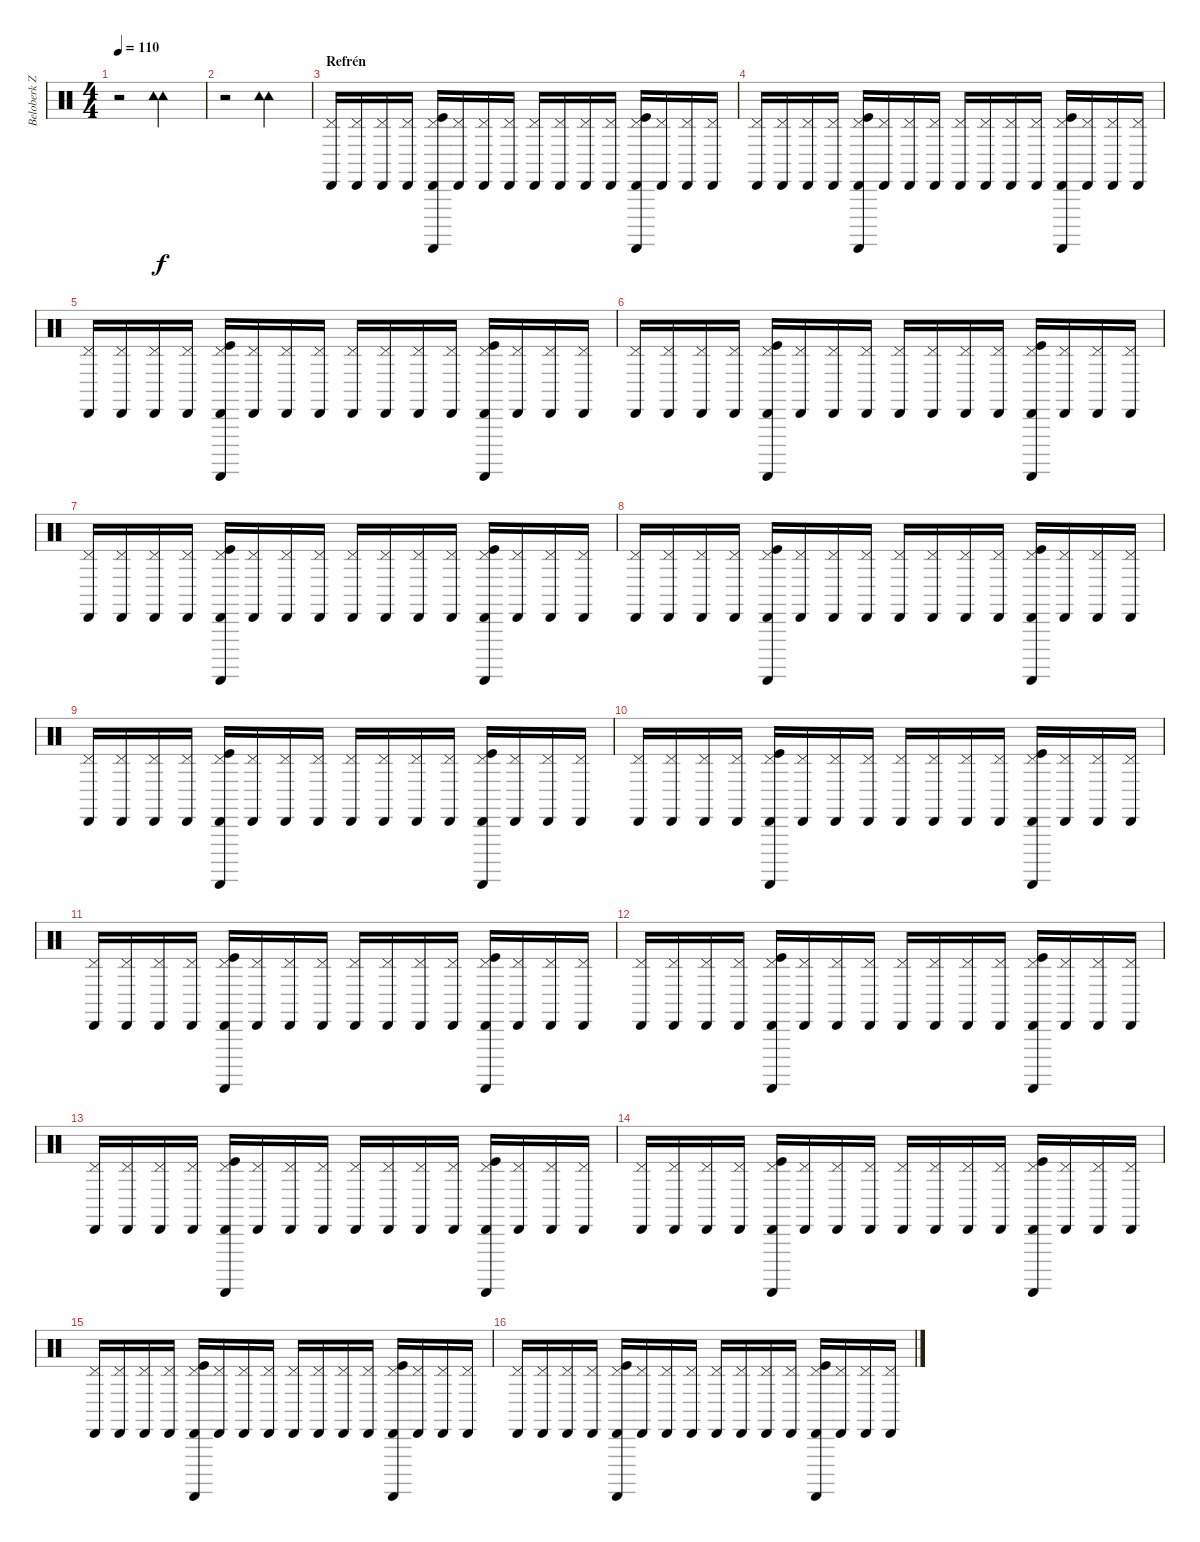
\track ("Beloberk Zsolt" "Beloberk Z") {instrument percussion}
\staff {score}
\articulation defaults
\ts (4 4)
\tempo 110
\clef neutral
\ks c
r.2{dy f} ("Tambourine (hit)" "Tambourine (hit)").2 |
r.2 ("Tambourine (hit)" "Tambourine (hit)").2 |
\section ("" "Refrén")
("Cabasa (hit)" "Pedal Hi-Hat (hit)").16 ("Cabasa (hit)" "Pedal Hi-Hat (hit)").16 ("Cabasa (hit)" "Pedal Hi-Hat (hit)").16 ("Cabasa (hit)" "Pedal Hi-Hat (hit)").16 ("Cabasa (hit)" "Guiro (scrap-return)" "Pedal Hi-Hat (hit)" "Kick (hit)").16 ("Cabasa (hit)" "Pedal Hi-Hat (hit)").16 ("Cabasa (hit)" "Pedal Hi-Hat (hit)").16 ("Cabasa (hit)" "Pedal Hi-Hat (hit)").16 ("Cabasa (hit)" "Pedal Hi-Hat (hit)").16 ("Cabasa (hit)" "Pedal Hi-Hat (hit)").16 ("Cabasa (hit)" "Pedal Hi-Hat (hit)").16 ("Cabasa (hit)" "Pedal Hi-Hat (hit)").16 ("Cabasa (hit)" "Guiro (scrap-return)" "Pedal Hi-Hat (hit)" "Kick (hit)").16 ("Cabasa (hit)" "Pedal Hi-Hat (hit)").16 ("Cabasa (hit)" "Pedal Hi-Hat (hit)").16 ("Cabasa (hit)" "Pedal Hi-Hat (hit)").16 |
("Cabasa (hit)" "Pedal Hi-Hat (hit)").16 ("Cabasa (hit)" "Pedal Hi-Hat (hit)").16 ("Cabasa (hit)" "Pedal Hi-Hat (hit)").16 ("Cabasa (hit)" "Pedal Hi-Hat (hit)").16 ("Cabasa (hit)" "Guiro (scrap-return)" "Pedal Hi-Hat (hit)" "Kick (hit)").16 ("Cabasa (hit)" "Pedal Hi-Hat (hit)").16 ("Cabasa (hit)" "Pedal Hi-Hat (hit)").16 ("Cabasa (hit)" "Pedal Hi-Hat (hit)").16 ("Cabasa (hit)" "Pedal Hi-Hat (hit)").16 ("Cabasa (hit)" "Pedal Hi-Hat (hit)").16 ("Cabasa (hit)" "Pedal Hi-Hat (hit)").16 ("Cabasa (hit)" "Pedal Hi-Hat (hit)").16 ("Cabasa (hit)" "Guiro (scrap-return)" "Pedal Hi-Hat (hit)" "Kick (hit)").16 ("Cabasa (hit)" "Pedal Hi-Hat (hit)").16 ("Cabasa (hit)" "Pedal Hi-Hat (hit)").16 ("Cabasa (hit)" "Pedal Hi-Hat (hit)").16 |
("Cabasa (hit)" "Pedal Hi-Hat (hit)").16 ("Cabasa (hit)" "Pedal Hi-Hat (hit)").16 ("Cabasa (hit)" "Pedal Hi-Hat (hit)").16 ("Cabasa (hit)" "Pedal Hi-Hat (hit)").16 ("Cabasa (hit)" "Guiro (scrap-return)" "Pedal Hi-Hat (hit)" "Kick (hit)").16 ("Cabasa (hit)" "Pedal Hi-Hat (hit)").16 ("Cabasa (hit)" "Pedal Hi-Hat (hit)").16 ("Cabasa (hit)" "Pedal Hi-Hat (hit)").16 ("Cabasa (hit)" "Pedal Hi-Hat (hit)").16 ("Cabasa (hit)" "Pedal Hi-Hat (hit)").16 ("Cabasa (hit)" "Pedal Hi-Hat (hit)").16 ("Cabasa (hit)" "Pedal Hi-Hat (hit)").16 ("Cabasa (hit)" "Guiro (scrap-return)" "Pedal Hi-Hat (hit)" "Kick (hit)").16 ("Cabasa (hit)" "Pedal Hi-Hat (hit)").16 ("Cabasa (hit)" "Pedal Hi-Hat (hit)").16 ("Cabasa (hit)" "Pedal Hi-Hat (hit)").16 |
("Cabasa (hit)" "Pedal Hi-Hat (hit)").16 ("Cabasa (hit)" "Pedal Hi-Hat (hit)").16 ("Cabasa (hit)" "Pedal Hi-Hat (hit)").16 ("Cabasa (hit)" "Pedal Hi-Hat (hit)").16 ("Cabasa (hit)" "Guiro (scrap-return)" "Pedal Hi-Hat (hit)" "Kick (hit)").16 ("Cabasa (hit)" "Pedal Hi-Hat (hit)").16 ("Cabasa (hit)" "Pedal Hi-Hat (hit)").16 ("Cabasa (hit)" "Pedal Hi-Hat (hit)").16 ("Cabasa (hit)" "Pedal Hi-Hat (hit)").16 ("Cabasa (hit)" "Pedal Hi-Hat (hit)").16 ("Cabasa (hit)" "Pedal Hi-Hat (hit)").16 ("Cabasa (hit)" "Pedal Hi-Hat (hit)").16 ("Cabasa (hit)" "Guiro (scrap-return)" "Pedal Hi-Hat (hit)" "Kick (hit)").16 ("Cabasa (hit)" "Pedal Hi-Hat (hit)").16 ("Cabasa (hit)" "Pedal Hi-Hat (hit)").16 ("Cabasa (hit)" "Pedal Hi-Hat (hit)").16 |
("Cabasa (hit)" "Pedal Hi-Hat (hit)").16 ("Cabasa (hit)" "Pedal Hi-Hat (hit)").16 ("Cabasa (hit)" "Pedal Hi-Hat (hit)").16 ("Cabasa (hit)" "Pedal Hi-Hat (hit)").16 ("Cabasa (hit)" "Guiro (scrap-return)" "Pedal Hi-Hat (hit)" "Kick (hit)").16 ("Cabasa (hit)" "Pedal Hi-Hat (hit)").16 ("Cabasa (hit)" "Pedal Hi-Hat (hit)").16 ("Cabasa (hit)" "Pedal Hi-Hat (hit)").16 ("Cabasa (hit)" "Pedal Hi-Hat (hit)").16 ("Cabasa (hit)" "Pedal Hi-Hat (hit)").16 ("Cabasa (hit)" "Pedal Hi-Hat (hit)").16 ("Cabasa (hit)" "Pedal Hi-Hat (hit)").16 ("Cabasa (hit)" "Guiro (scrap-return)" "Pedal Hi-Hat (hit)" "Kick (hit)").16 ("Cabasa (hit)" "Pedal Hi-Hat (hit)").16 ("Cabasa (hit)" "Pedal Hi-Hat (hit)").16 ("Cabasa (hit)" "Pedal Hi-Hat (hit)").16 |
("Cabasa (hit)" "Pedal Hi-Hat (hit)").16 ("Cabasa (hit)" "Pedal Hi-Hat (hit)").16 ("Cabasa (hit)" "Pedal Hi-Hat (hit)").16 ("Cabasa (hit)" "Pedal Hi-Hat (hit)").16 ("Cabasa (hit)" "Guiro (scrap-return)" "Pedal Hi-Hat (hit)" "Kick (hit)").16 ("Cabasa (hit)" "Pedal Hi-Hat (hit)").16 ("Cabasa (hit)" "Pedal Hi-Hat (hit)").16 ("Cabasa (hit)" "Pedal Hi-Hat (hit)").16 ("Cabasa (hit)" "Pedal Hi-Hat (hit)").16 ("Cabasa (hit)" "Pedal Hi-Hat (hit)").16 ("Cabasa (hit)" "Pedal Hi-Hat (hit)").16 ("Cabasa (hit)" "Pedal Hi-Hat (hit)").16 ("Cabasa (hit)" "Guiro (scrap-return)" "Pedal Hi-Hat (hit)" "Kick (hit)").16 ("Cabasa (hit)" "Pedal Hi-Hat (hit)").16 ("Cabasa (hit)" "Pedal Hi-Hat (hit)").16 ("Cabasa (hit)" "Pedal Hi-Hat (hit)").16 |
("Cabasa (hit)" "Pedal Hi-Hat (hit)").16 ("Cabasa (hit)" "Pedal Hi-Hat (hit)").16 ("Cabasa (hit)" "Pedal Hi-Hat (hit)").16 ("Cabasa (hit)" "Pedal Hi-Hat (hit)").16 ("Cabasa (hit)" "Guiro (scrap-return)" "Pedal Hi-Hat (hit)" "Kick (hit)").16 ("Cabasa (hit)" "Pedal Hi-Hat (hit)").16 ("Cabasa (hit)" "Pedal Hi-Hat (hit)").16 ("Cabasa (hit)" "Pedal Hi-Hat (hit)").16 ("Cabasa (hit)" "Pedal Hi-Hat (hit)").16 ("Cabasa (hit)" "Pedal Hi-Hat (hit)").16 ("Cabasa (hit)" "Pedal Hi-Hat (hit)").16 ("Cabasa (hit)" "Pedal Hi-Hat (hit)").16 ("Cabasa (hit)" "Guiro (scrap-return)" "Pedal Hi-Hat (hit)" "Kick (hit)").16 ("Cabasa (hit)" "Pedal Hi-Hat (hit)").16 ("Cabasa (hit)" "Pedal Hi-Hat (hit)").16 ("Cabasa (hit)" "Pedal Hi-Hat (hit)").16 |
("Cabasa (hit)" "Pedal Hi-Hat (hit)").16 ("Cabasa (hit)" "Pedal Hi-Hat (hit)").16 ("Cabasa (hit)" "Pedal Hi-Hat (hit)").16 ("Cabasa (hit)" "Pedal Hi-Hat (hit)").16 ("Cabasa (hit)" "Guiro (scrap-return)" "Pedal Hi-Hat (hit)" "Kick (hit)").16 ("Cabasa (hit)" "Pedal Hi-Hat (hit)").16 ("Cabasa (hit)" "Pedal Hi-Hat (hit)").16 ("Cabasa (hit)" "Pedal Hi-Hat (hit)").16 ("Cabasa (hit)" "Pedal Hi-Hat (hit)").16 ("Cabasa (hit)" "Pedal Hi-Hat (hit)").16 ("Cabasa (hit)" "Pedal Hi-Hat (hit)").16 ("Cabasa (hit)" "Pedal Hi-Hat (hit)").16 ("Cabasa (hit)" "Guiro (scrap-return)" "Pedal Hi-Hat (hit)" "Kick (hit)").16 ("Cabasa (hit)" "Pedal Hi-Hat (hit)").16 ("Cabasa (hit)" "Pedal Hi-Hat (hit)").16 ("Cabasa (hit)" "Pedal Hi-Hat (hit)").16 |
("Cabasa (hit)" "Pedal Hi-Hat (hit)").16 ("Cabasa (hit)" "Pedal Hi-Hat (hit)").16 ("Cabasa (hit)" "Pedal Hi-Hat (hit)").16 ("Cabasa (hit)" "Pedal Hi-Hat (hit)").16 ("Cabasa (hit)" "Guiro (scrap-return)" "Pedal Hi-Hat (hit)" "Kick (hit)").16 ("Cabasa (hit)" "Pedal Hi-Hat (hit)").16 ("Cabasa (hit)" "Pedal Hi-Hat (hit)").16 ("Cabasa (hit)" "Pedal Hi-Hat (hit)").16 ("Cabasa (hit)" "Pedal Hi-Hat (hit)").16 ("Cabasa (hit)" "Pedal Hi-Hat (hit)").16 ("Cabasa (hit)" "Pedal Hi-Hat (hit)").16 ("Cabasa (hit)" "Pedal Hi-Hat (hit)").16 ("Cabasa (hit)" "Guiro (scrap-return)" "Pedal Hi-Hat (hit)" "Kick (hit)").16 ("Cabasa (hit)" "Pedal Hi-Hat (hit)").16 ("Cabasa (hit)" "Pedal Hi-Hat (hit)").16 ("Cabasa (hit)" "Pedal Hi-Hat (hit)").16 |
("Cabasa (hit)" "Pedal Hi-Hat (hit)").16 ("Cabasa (hit)" "Pedal Hi-Hat (hit)").16 ("Cabasa (hit)" "Pedal Hi-Hat (hit)").16 ("Cabasa (hit)" "Pedal Hi-Hat (hit)").16 ("Cabasa (hit)" "Guiro (scrap-return)" "Pedal Hi-Hat (hit)" "Kick (hit)").16 ("Cabasa (hit)" "Pedal Hi-Hat (hit)").16 ("Cabasa (hit)" "Pedal Hi-Hat (hit)").16 ("Cabasa (hit)" "Pedal Hi-Hat (hit)").16 ("Cabasa (hit)" "Pedal Hi-Hat (hit)").16 ("Cabasa (hit)" "Pedal Hi-Hat (hit)").16 ("Cabasa (hit)" "Pedal Hi-Hat (hit)").16 ("Cabasa (hit)" "Pedal Hi-Hat (hit)").16 ("Cabasa (hit)" "Guiro (scrap-return)" "Pedal Hi-Hat (hit)" "Kick (hit)").16 ("Cabasa (hit)" "Pedal Hi-Hat (hit)").16 ("Cabasa (hit)" "Pedal Hi-Hat (hit)").16 ("Cabasa (hit)" "Pedal Hi-Hat (hit)").16 |
("Cabasa (hit)" "Pedal Hi-Hat (hit)").16 ("Cabasa (hit)" "Pedal Hi-Hat (hit)").16 ("Cabasa (hit)" "Pedal Hi-Hat (hit)").16 ("Cabasa (hit)" "Pedal Hi-Hat (hit)").16 ("Cabasa (hit)" "Guiro (scrap-return)" "Pedal Hi-Hat (hit)" "Kick (hit)").16 ("Cabasa (hit)" "Pedal Hi-Hat (hit)").16 ("Cabasa (hit)" "Pedal Hi-Hat (hit)").16 ("Cabasa (hit)" "Pedal Hi-Hat (hit)").16 ("Cabasa (hit)" "Pedal Hi-Hat (hit)").16 ("Cabasa (hit)" "Pedal Hi-Hat (hit)").16 ("Cabasa (hit)" "Pedal Hi-Hat (hit)").16 ("Cabasa (hit)" "Pedal Hi-Hat (hit)").16 ("Cabasa (hit)" "Guiro (scrap-return)" "Pedal Hi-Hat (hit)" "Kick (hit)").16 ("Cabasa (hit)" "Pedal Hi-Hat (hit)").16 ("Cabasa (hit)" "Pedal Hi-Hat (hit)").16 ("Cabasa (hit)" "Pedal Hi-Hat (hit)").16 |
("Cabasa (hit)" "Pedal Hi-Hat (hit)").16 ("Cabasa (hit)" "Pedal Hi-Hat (hit)").16 ("Cabasa (hit)" "Pedal Hi-Hat (hit)").16 ("Cabasa (hit)" "Pedal Hi-Hat (hit)").16 ("Cabasa (hit)" "Guiro (scrap-return)" "Pedal Hi-Hat (hit)" "Kick (hit)").16 ("Cabasa (hit)" "Pedal Hi-Hat (hit)").16 ("Cabasa (hit)" "Pedal Hi-Hat (hit)").16 ("Cabasa (hit)" "Pedal Hi-Hat (hit)").16 ("Cabasa (hit)" "Pedal Hi-Hat (hit)").16 ("Cabasa (hit)" "Pedal Hi-Hat (hit)").16 ("Cabasa (hit)" "Pedal Hi-Hat (hit)").16 ("Cabasa (hit)" "Pedal Hi-Hat (hit)").16 ("Cabasa (hit)" "Guiro (scrap-return)" "Pedal Hi-Hat (hit)" "Kick (hit)").16 ("Cabasa (hit)" "Pedal Hi-Hat (hit)").16 ("Cabasa (hit)" "Pedal Hi-Hat (hit)").16 ("Cabasa (hit)" "Pedal Hi-Hat (hit)").16 |
("Cabasa (hit)" "Pedal Hi-Hat (hit)").16 ("Cabasa (hit)" "Pedal Hi-Hat (hit)").16 ("Cabasa (hit)" "Pedal Hi-Hat (hit)").16 ("Cabasa (hit)" "Pedal Hi-Hat (hit)").16 ("Cabasa (hit)" "Guiro (scrap-return)" "Pedal Hi-Hat (hit)" "Kick (hit)").16 ("Cabasa (hit)" "Pedal Hi-Hat (hit)").16 ("Cabasa (hit)" "Pedal Hi-Hat (hit)").16 ("Cabasa (hit)" "Pedal Hi-Hat (hit)").16 ("Cabasa (hit)" "Pedal Hi-Hat (hit)").16 ("Cabasa (hit)" "Pedal Hi-Hat (hit)").16 ("Cabasa (hit)" "Pedal Hi-Hat (hit)").16 ("Cabasa (hit)" "Pedal Hi-Hat (hit)").16 ("Cabasa (hit)" "Guiro (scrap-return)" "Pedal Hi-Hat (hit)" "Kick (hit)").16 ("Cabasa (hit)" "Pedal Hi-Hat (hit)").16 ("Cabasa (hit)" "Pedal Hi-Hat (hit)").16 ("Cabasa (hit)" "Pedal Hi-Hat (hit)").16 |
("Cabasa (hit)" "Pedal Hi-Hat (hit)").16 ("Cabasa (hit)" "Pedal Hi-Hat (hit)").16 ("Cabasa (hit)" "Pedal Hi-Hat (hit)").16 ("Cabasa (hit)" "Pedal Hi-Hat (hit)").16 ("Cabasa (hit)" "Guiro (scrap-return)" "Pedal Hi-Hat (hit)" "Kick (hit)").16 ("Cabasa (hit)" "Pedal Hi-Hat (hit)").16 ("Cabasa (hit)" "Pedal Hi-Hat (hit)").16 ("Cabasa (hit)" "Pedal Hi-Hat (hit)").16 ("Cabasa (hit)" "Pedal Hi-Hat (hit)").16 ("Cabasa (hit)" "Pedal Hi-Hat (hit)").16 ("Cabasa (hit)" "Pedal Hi-Hat (hit)").16 ("Cabasa (hit)" "Pedal Hi-Hat (hit)").16 ("Cabasa (hit)" "Guiro (scrap-return)" "Pedal Hi-Hat (hit)" "Kick (hit)").16 ("Cabasa (hit)" "Pedal Hi-Hat (hit)").16 ("Cabasa (hit)" "Pedal Hi-Hat (hit)").16 ("Cabasa (hit)" "Pedal Hi-Hat (hit)").16
